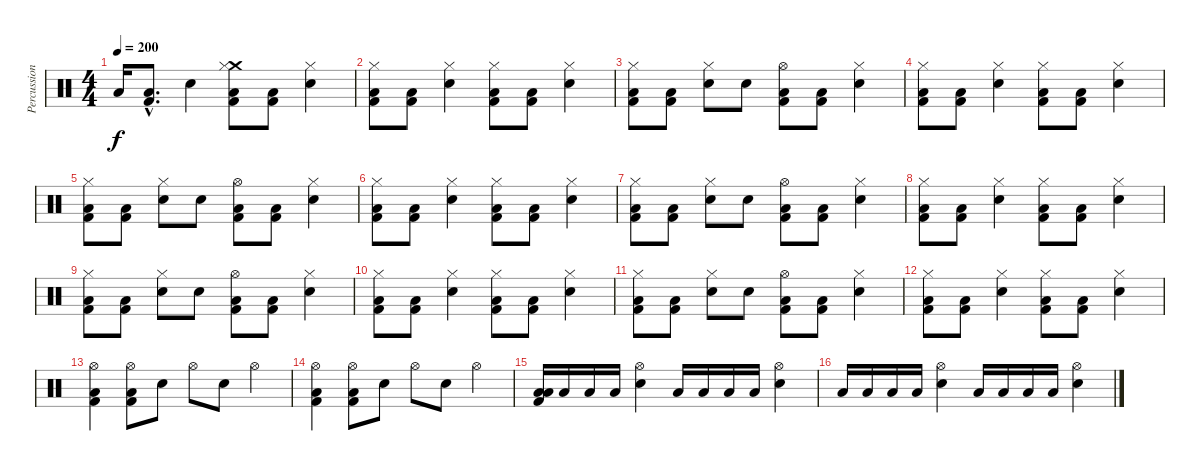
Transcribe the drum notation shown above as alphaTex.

\track ("Percussions" "Percussion") {instrument percussion}
\staff {score}
\articulation defaults
\ts (4 4)
\tempo 200
\clef neutral
\ks c "Low Tom (hit)".16{dy f}
("Kick (hit) 2"{hac} "Low Floor Tom (hit)"{hac}).8{d} "Snare (hit) 2".4 ("Kick (hit) 2" "Low Floor Tom (hit)" "Crash medium (hit)" "Hi-Hat (closed)").8 ("Kick (hit) 2" "Low Floor Tom (hit)").8 ("Snare (hit) 2" "Hi-Hat (closed)").4 |
("Kick (hit) 2" "Low Floor Tom (hit)" "Hi-Hat (closed)").8 ("Kick (hit) 2" "Low Floor Tom (hit)").8 ("Snare (hit) 2" "Hi-Hat (closed)").4 ("Kick (hit) 2" "Low Floor Tom (hit)" "Hi-Hat (closed)").8 ("Kick (hit) 2" "Low Floor Tom (hit)").8 ("Snare (hit) 2" "Hi-Hat (closed)").4 |
("Kick (hit) 2" "Low Floor Tom (hit)" "Hi-Hat (closed)").8 ("Kick (hit) 2" "Low Floor Tom (hit)").8 ("Snare (hit) 2" "Hi-Hat (closed)").8 "Snare (hit) 2".8 ("Kick (hit) 2" "Low Floor Tom (hit)" "Hi-Hat (open)").8 ("Kick (hit) 2" "Low Floor Tom (hit)").8 ("Snare (hit) 2" "Hi-Hat (closed)").4 |
("Kick (hit) 2" "Low Floor Tom (hit)" "Hi-Hat (closed)").8 ("Kick (hit) 2" "Low Floor Tom (hit)").8 ("Snare (hit) 2" "Hi-Hat (closed)").4 ("Kick (hit) 2" "Low Floor Tom (hit)" "Hi-Hat (closed)").8 ("Kick (hit) 2" "Low Floor Tom (hit)").8 ("Snare (hit) 2" "Hi-Hat (closed)").4 |
("Kick (hit) 2" "Low Floor Tom (hit)" "Hi-Hat (closed)").8 ("Kick (hit) 2" "Low Floor Tom (hit)").8 ("Snare (hit) 2" "Hi-Hat (closed)").8 "Snare (hit) 2".8 ("Kick (hit) 2" "Low Floor Tom (hit)" "Hi-Hat (open)").8 ("Kick (hit) 2" "Low Floor Tom (hit)").8 ("Snare (hit) 2" "Hi-Hat (closed)").4 |
("Kick (hit) 2" "Low Floor Tom (hit)" "Hi-Hat (closed)").8 ("Kick (hit) 2" "Low Floor Tom (hit)").8 ("Snare (hit) 2" "Hi-Hat (closed)").4 ("Kick (hit) 2" "Low Floor Tom (hit)" "Hi-Hat (closed)").8 ("Kick (hit) 2" "Low Floor Tom (hit)").8 ("Snare (hit) 2" "Hi-Hat (closed)").4 |
("Kick (hit) 2" "Low Floor Tom (hit)" "Hi-Hat (closed)").8 ("Kick (hit) 2" "Low Floor Tom (hit)").8 ("Snare (hit) 2" "Hi-Hat (closed)").8 "Snare (hit) 2".8 ("Kick (hit) 2" "Low Floor Tom (hit)" "Hi-Hat (open)").8 ("Kick (hit) 2" "Low Floor Tom (hit)").8 ("Snare (hit) 2" "Hi-Hat (closed)").4 |
("Kick (hit) 2" "Low Floor Tom (hit)" "Hi-Hat (closed)").8 ("Kick (hit) 2" "Low Floor Tom (hit)").8 ("Snare (hit) 2" "Hi-Hat (closed)").4 ("Kick (hit) 2" "Low Floor Tom (hit)" "Hi-Hat (closed)").8 ("Kick (hit) 2" "Low Floor Tom (hit)").8 ("Snare (hit) 2" "Hi-Hat (closed)").4 |
("Kick (hit) 2" "Low Floor Tom (hit)" "Hi-Hat (closed)").8 ("Kick (hit) 2" "Low Floor Tom (hit)").8 ("Snare (hit) 2" "Hi-Hat (closed)").8 "Snare (hit) 2".8 ("Kick (hit) 2" "Low Floor Tom (hit)" "Hi-Hat (open)").8 ("Kick (hit) 2" "Low Floor Tom (hit)").8 ("Snare (hit) 2" "Hi-Hat (closed)").4 |
("Kick (hit) 2" "Low Floor Tom (hit)" "Hi-Hat (closed)").8 ("Kick (hit) 2" "Low Floor Tom (hit)").8 ("Snare (hit) 2" "Hi-Hat (closed)").4 ("Kick (hit) 2" "Low Floor Tom (hit)" "Hi-Hat (closed)").8 ("Kick (hit) 2" "Low Floor Tom (hit)").8 ("Snare (hit) 2" "Hi-Hat (closed)").4 |
("Kick (hit) 2" "Low Floor Tom (hit)" "Hi-Hat (closed)").8 ("Kick (hit) 2" "Low Floor Tom (hit)").8 ("Snare (hit) 2" "Hi-Hat (closed)").8 "Snare (hit) 2".8 ("Kick (hit) 2" "Low Floor Tom (hit)" "Hi-Hat (open)").8 ("Kick (hit) 2" "Low Floor Tom (hit)").8 ("Snare (hit) 2" "Hi-Hat (closed)").4 |
("Kick (hit) 2" "Low Floor Tom (hit)" "Hi-Hat (closed)").8 ("Kick (hit) 2" "Low Floor Tom (hit)").8 ("Snare (hit) 2" "Hi-Hat (closed)").4 ("Kick (hit) 2" "Low Floor Tom (hit)" "Hi-Hat (closed)").8 ("Kick (hit) 2" "Low Floor Tom (hit)").8 ("Snare (hit) 2" "Hi-Hat (closed)").4 |
("Kick (hit) 2" "Low Floor Tom (hit)" "Hi-Hat (open)").4 ("Kick (hit) 2" "Low Floor Tom (hit)" "Hi-Hat (open)").8 "Snare (hit) 2".8 "Hi-Hat (open)".8 "Snare (hit) 2".8 "Hi-Hat (open)".4 |
("Kick (hit) 2" "Low Floor Tom (hit)" "Hi-Hat (open)").4 ("Kick (hit) 2" "Low Floor Tom (hit)" "Hi-Hat (open)").8 "Snare (hit) 2".8 "Hi-Hat (open)".8 "Snare (hit) 2".8 "Hi-Hat (open)".4 |
("Kick (hit) 2" "Low Floor Tom (hit)" "Low Tom (hit)").16 "Low Tom (hit)".16 "Low Tom (hit)".16 "Low Tom (hit)".16 ("Snare (hit) 2" "Hi-Hat (open)").4 "Low Tom (hit)".16 "Low Tom (hit)".16 "Low Tom (hit)".16 "Low Tom (hit)".16 ("Snare (hit) 2" "Hi-Hat (open)").4 |
"Low Tom (hit)".16 "Low Tom (hit)".16 "Low Tom (hit)".16 "Low Tom (hit)".16 ("Snare (hit) 2" "Hi-Hat (open)").4 "Low Tom (hit)".16 "Low Tom (hit)".16 "Low Tom (hit)".16 "Low Tom (hit)".16 ("Snare (hit) 2" "Hi-Hat (open)").4
